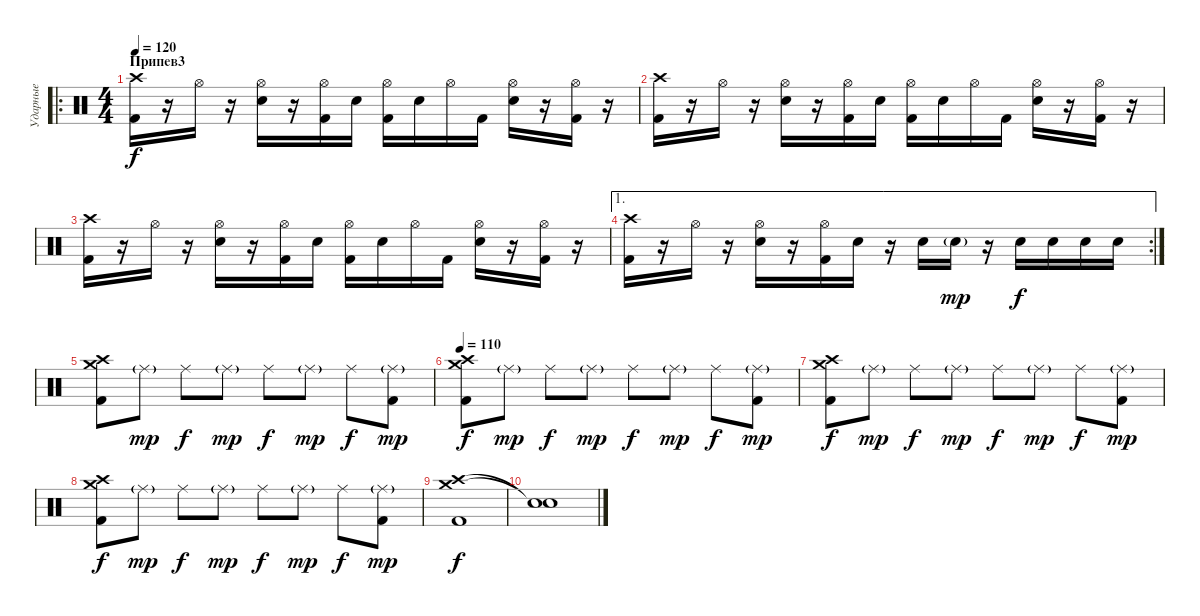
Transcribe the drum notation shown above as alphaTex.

\track ("Ударные" "Ударные") {instrument percussion}
\staff {score}
\articulation defaults
\ro
\ts (4 4)
\section ("" "Припев3")
\tempo 120
\clef neutral
\ks c
("Crash high (hit)" "Kick (hit) 2").16{dy f} r.16 "Hi-Hat (open)".16 r.16 ("Hi-Hat (open)" "Electric Snare (hit)").16 r.16 ("Hi-Hat (open)" "Kick (hit) 2").16 "Electric Snare (hit)".16 ("Hi-Hat (open)" "Kick (hit) 2").16 "Electric Snare (hit)".16 "Hi-Hat (open)".16 "Kick (hit) 2".16 ("Hi-Hat (open)" "Electric Snare (hit)").16 r.16 ("Hi-Hat (open)" "Kick (hit) 2").16 r.16 |
("Crash high (hit)" "Kick (hit) 2").16 r.16 "Hi-Hat (open)".16 r.16 ("Hi-Hat (open)" "Electric Snare (hit)").16 r.16 ("Hi-Hat (open)" "Kick (hit) 2").16 "Electric Snare (hit)".16 ("Hi-Hat (open)" "Kick (hit) 2").16 "Electric Snare (hit)".16 "Hi-Hat (open)".16 "Kick (hit) 2".16 ("Hi-Hat (open)" "Electric Snare (hit)").16 r.16 ("Hi-Hat (open)" "Kick (hit) 2").16 r.16 |
("Crash high (hit)" "Kick (hit) 2").16 r.16 "Hi-Hat (open)".16 r.16 ("Hi-Hat (open)" "Electric Snare (hit)").16 r.16 ("Hi-Hat (open)" "Kick (hit) 2").16 "Electric Snare (hit)".16 ("Hi-Hat (open)" "Kick (hit) 2").16 "Electric Snare (hit)".16 "Hi-Hat (open)".16 "Kick (hit) 2".16 ("Hi-Hat (open)" "Electric Snare (hit)").16 r.16 ("Hi-Hat (open)" "Kick (hit) 2").16 r.16 |
\ae 1
\rc 2
("Crash high (hit)" "Kick (hit) 2").16 r.16 "Hi-Hat (open)".16 r.16 ("Hi-Hat (open)" "Electric Snare (hit)").16 r.16 ("Hi-Hat (open)" "Kick (hit) 2").16 "Electric Snare (hit)".16 r.16 "Electric Snare (hit)".16 "Electric Snare (hit)"{g}.16{dy mp} r.16 "Electric Snare (hit)".16{dy f} "Electric Snare (hit)".16 "Electric Snare (hit)".16 "Electric Snare (hit)".16 |
("Crash medium (hit)" "Crash high (hit)" "Kick (hit) 2").8 "Ride (middle)"{g}.8{dy mp} "Ride (middle)".8{dy f} "Ride (middle)"{g}.8{dy mp} "Ride (middle)".8{dy f} "Ride (middle)"{g}.8{dy mp} "Ride (middle)".8{dy f} ("Ride (middle)"{g} "Kick (hit) 2").8{dy mp} |
\tempo 110
("Crash medium (hit)" "Crash high (hit)" "Kick (hit) 2").8{dy f} "Ride (middle)"{g}.8{dy mp} "Ride (middle)".8{dy f} "Ride (middle)"{g}.8{dy mp} "Ride (middle)".8{dy f} "Ride (middle)"{g}.8{dy mp} "Ride (middle)".8{dy f} ("Ride (middle)"{g} "Kick (hit) 2").8{dy mp} |
("Crash medium (hit)" "Crash high (hit)" "Kick (hit) 2").8{dy f} "Ride (middle)"{g}.8{dy mp} "Ride (middle)".8{dy f} "Ride (middle)"{g}.8{dy mp} "Ride (middle)".8{dy f} "Ride (middle)"{g}.8{dy mp} "Ride (middle)".8{dy f} ("Ride (middle)"{g} "Kick (hit) 2").8{dy mp} |
("Crash medium (hit)" "Crash high (hit)" "Kick (hit) 2").8{dy f} "Ride (middle)"{g}.8{dy mp} "Ride (middle)".8{dy f} "Ride (middle)"{g}.8{dy mp} "Ride (middle)".8{dy f} "Ride (middle)"{g}.8{dy mp} "Ride (middle)".8{dy f} ("Ride (middle)"{g} "Kick (hit) 2").8{dy mp} |
("Crash high (hit)" "Crash medium (hit)" "Kick (hit) 2").1{dy f} |
("Snare (hit)"{t} "Snare (hit)"{t}).1
